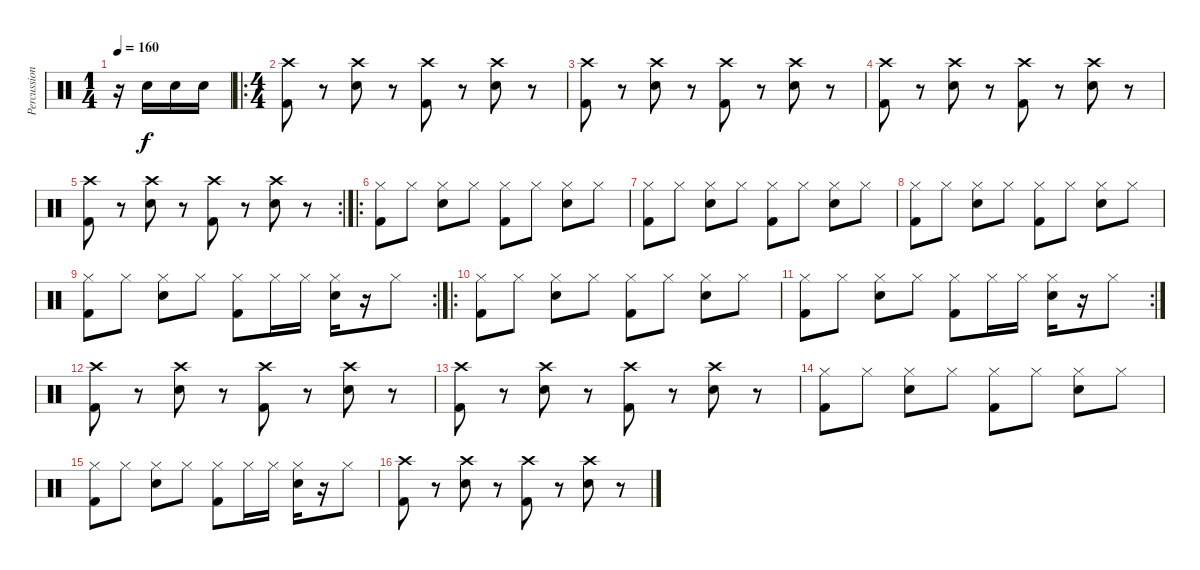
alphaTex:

\track ("Percussions" "Percussion") {instrument percussion}
\staff {score}
\articulation defaults
\ts (1 4)
\tempo 160
\clef neutral
\ks c
r.16{dy f} "Electric Snare (hit)".16 "Electric Snare (hit)".16 "Electric Snare (hit)".16 |
\ro
\ts (4 4)
("Crash high (hit)" "Kick (hit) 2").8 r.8 ("Crash high (hit)" "Electric Snare (hit)").8 r.8 ("Crash high (hit)" "Kick (hit) 2").8 r.8 ("Crash high (hit)" "Electric Snare (hit)").8 r.8 |
("Crash high (hit)" "Kick (hit) 2").8 r.8 ("Crash high (hit)" "Electric Snare (hit)").8 r.8 ("Crash high (hit)" "Kick (hit) 2").8 r.8 ("Crash high (hit)" "Electric Snare (hit)").8 r.8 |
("Crash high (hit)" "Kick (hit) 2").8 r.8 ("Crash high (hit)" "Electric Snare (hit)").8 r.8 ("Crash high (hit)" "Kick (hit) 2").8 r.8 ("Crash high (hit)" "Electric Snare (hit)").8 r.8 |
\rc 2
("Crash high (hit)" "Kick (hit) 2").8 r.8 ("Crash high (hit)" "Electric Snare (hit)").8 r.8 ("Crash high (hit)" "Kick (hit) 2").8 r.8 ("Crash high (hit)" "Electric Snare (hit)").8 r.8 |
\ro
("Hi-Hat (closed)" "Kick (hit) 2").8 "Hi-Hat (closed)".8 ("Hi-Hat (closed)" "Electric Snare (hit)").8 "Hi-Hat (closed)".8 ("Hi-Hat (closed)" "Kick (hit) 2").8 "Hi-Hat (closed)".8 ("Hi-Hat (closed)" "Electric Snare (hit)").8 "Hi-Hat (closed)".8 |
("Hi-Hat (closed)" "Kick (hit) 2").8 "Hi-Hat (closed)".8 ("Hi-Hat (closed)" "Electric Snare (hit)").8 "Hi-Hat (closed)".8 ("Hi-Hat (closed)" "Kick (hit) 2").8 "Hi-Hat (closed)".8 ("Hi-Hat (closed)" "Electric Snare (hit)").8 "Hi-Hat (closed)".8 |
("Hi-Hat (closed)" "Kick (hit) 2").8 "Hi-Hat (closed)".8 ("Hi-Hat (closed)" "Electric Snare (hit)").8 "Hi-Hat (closed)".8 ("Hi-Hat (closed)" "Kick (hit) 2").8 "Hi-Hat (closed)".8 ("Hi-Hat (closed)" "Electric Snare (hit)").8 "Hi-Hat (closed)".8 |
\rc 2
("Hi-Hat (closed)" "Kick (hit) 2").8 "Hi-Hat (closed)".8 ("Hi-Hat (closed)" "Electric Snare (hit)").8 "Hi-Hat (closed)".8 ("Hi-Hat (closed)" "Kick (hit) 2").8 "Hi-Hat (closed)".16 "Hi-Hat (closed)".16 ("Hi-Hat (closed)" "Electric Snare (hit)").16 r.16 "Hi-Hat (closed)".8 |
\ro
("Hi-Hat (closed)" "Kick (hit) 2").8 "Hi-Hat (closed)".8 ("Hi-Hat (closed)" "Electric Snare (hit)").8 "Hi-Hat (closed)".8 ("Hi-Hat (closed)" "Kick (hit) 2").8 "Hi-Hat (closed)".8 ("Hi-Hat (closed)" "Electric Snare (hit)").8 "Hi-Hat (closed)".8 |
\rc 2
("Hi-Hat (closed)" "Kick (hit) 2").8 "Hi-Hat (closed)".8 ("Hi-Hat (closed)" "Electric Snare (hit)").8 "Hi-Hat (closed)".8 ("Hi-Hat (closed)" "Kick (hit) 2").8 "Hi-Hat (closed)".16 "Hi-Hat (closed)".16 ("Hi-Hat (closed)" "Electric Snare (hit)").16 r.16 "Hi-Hat (closed)".8 |
("Crash high (hit)" "Kick (hit) 2").8 r.8 ("Crash high (hit)" "Electric Snare (hit)").8 r.8 ("Crash high (hit)" "Kick (hit) 2").8 r.8 ("Crash high (hit)" "Electric Snare (hit)").8 r.8 |
("Crash high (hit)" "Kick (hit) 2").8 r.8 ("Crash high (hit)" "Electric Snare (hit)").8 r.8 ("Crash high (hit)" "Kick (hit) 2").8 r.8 ("Crash high (hit)" "Electric Snare (hit)").8 r.8 |
("Hi-Hat (closed)" "Kick (hit) 2").8 "Hi-Hat (closed)".8 ("Hi-Hat (closed)" "Electric Snare (hit)").8 "Hi-Hat (closed)".8 ("Hi-Hat (closed)" "Kick (hit) 2").8 "Hi-Hat (closed)".8 ("Hi-Hat (closed)" "Electric Snare (hit)").8 "Hi-Hat (closed)".8 |
("Hi-Hat (closed)" "Kick (hit) 2").8 "Hi-Hat (closed)".8 ("Hi-Hat (closed)" "Electric Snare (hit)").8 "Hi-Hat (closed)".8 ("Hi-Hat (closed)" "Kick (hit) 2").8 "Hi-Hat (closed)".16 "Hi-Hat (closed)".16 ("Hi-Hat (closed)" "Electric Snare (hit)").16 r.16 "Hi-Hat (closed)".8 |
("Crash high (hit)" "Kick (hit) 2").8 r.8 ("Crash high (hit)" "Electric Snare (hit)").8 r.8 ("Crash high (hit)" "Kick (hit) 2").8 r.8 ("Crash high (hit)" "Electric Snare (hit)").8 r.8
